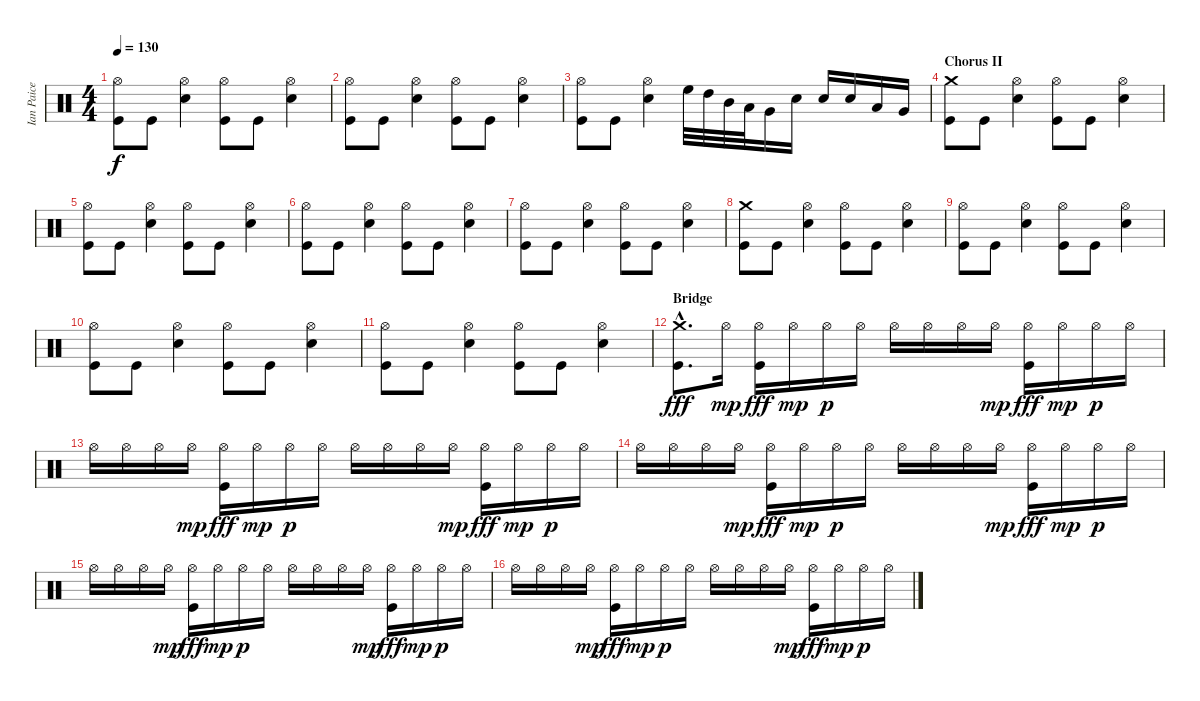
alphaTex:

\track ("Ian Paice - Drums" "Ian Paice ") {instrument percussion}
\staff {score}
\articulation defaults
\ts (4 4)
\tempo 130
\clef neutral
\ks c
("Hi-Hat (open)" "Kick (hit)").8{dy f} "Kick (hit)".8 ("Hi-Hat (open)" "Snare (hit) 2").4 ("Hi-Hat (open)" "Kick (hit)").8 "Kick (hit)".8 ("Hi-Hat (open)" "Snare (hit) 2").4 |
("Hi-Hat (open)" "Kick (hit)").8 "Kick (hit)".8 ("Hi-Hat (open)" "Snare (hit) 2").4 ("Hi-Hat (open)" "Kick (hit)").8 "Kick (hit)".8 ("Hi-Hat (open)" "Snare (hit) 2").4 |
("Hi-Hat (open)" "Kick (hit)").8 "Kick (hit)".8 ("Hi-Hat (open)" "Snare (hit) 2").4 "High Floor Tom (hit)".32 "High Tom (hit)".32 "Mid Tom (hit)".32 "Low Tom (hit)".32 "Very Low Tom (hit)".16 "Snare (hit) 2".16 "Snare (hit) 2".16 "Snare (hit) 2".16 "Low Tom (hit)".16 "Very Low Tom (hit)".16 |
\section ("" "Chorus II")
("Crash medium (hit)" "Kick (hit)").8 "Kick (hit)".8 ("Hi-Hat (open)" "Snare (hit) 2").4 ("Hi-Hat (open)" "Kick (hit)").8 "Kick (hit)".8 ("Hi-Hat (open)" "Snare (hit) 2").4 |
("Hi-Hat (open)" "Kick (hit)").8 "Kick (hit)".8 ("Hi-Hat (open)" "Snare (hit) 2").4 ("Hi-Hat (open)" "Kick (hit)").8 "Kick (hit)".8 ("Hi-Hat (open)" "Snare (hit) 2").4 |
("Hi-Hat (open)" "Kick (hit)").8 "Kick (hit)".8 ("Hi-Hat (open)" "Snare (hit) 2").4 ("Hi-Hat (open)" "Kick (hit)").8 "Kick (hit)".8 ("Hi-Hat (open)" "Snare (hit) 2").4 |
("Hi-Hat (open)" "Kick (hit)").8 "Kick (hit)".8 ("Hi-Hat (open)" "Snare (hit) 2").4 ("Hi-Hat (open)" "Kick (hit)").8 "Kick (hit)".8 ("Hi-Hat (open)" "Snare (hit) 2").4 |
("Crash medium (hit)" "Kick (hit)").8 "Kick (hit)".8 ("Hi-Hat (open)" "Snare (hit) 2").4 ("Hi-Hat (open)" "Kick (hit)").8 "Kick (hit)".8 ("Hi-Hat (open)" "Snare (hit) 2").4 |
("Hi-Hat (open)" "Kick (hit)").8 "Kick (hit)".8 ("Hi-Hat (open)" "Snare (hit) 2").4 ("Hi-Hat (open)" "Kick (hit)").8 "Kick (hit)".8 ("Hi-Hat (open)" "Snare (hit) 2").4 |
("Hi-Hat (open)" "Kick (hit)").8 "Kick (hit)".8 ("Hi-Hat (open)" "Snare (hit) 2").4 ("Hi-Hat (open)" "Kick (hit)").8 "Kick (hit)".8 ("Hi-Hat (open)" "Snare (hit) 2").4 |
("Hi-Hat (open)" "Kick (hit)").8 "Kick (hit)".8 ("Hi-Hat (open)" "Snare (hit) 2").4 ("Hi-Hat (open)" "Kick (hit)").8 "Kick (hit)".8 ("Hi-Hat (open)" "Snare (hit) 2").4 |
\section ("" "Bridge")
("Crash medium (hit)"{hac} "Kick (hit)"{hac}).8{d dy fff} "Hi-Hat (open)".16{dy mp} ("Hi-Hat (open)" "Kick (hit)").16{dy fff} "Hi-Hat (open)".16{dy mp} "Hi-Hat (open)".16{dy p} "Hi-Hat (open)".16 "Hi-Hat (open)".16 "Hi-Hat (open)".16 "Hi-Hat (open)".16 "Hi-Hat (open)".16{dy mp} ("Hi-Hat (open)" "Kick (hit)").16{dy fff} "Hi-Hat (open)".16{dy mp} "Hi-Hat (open)".16{dy p} "Hi-Hat (open)".16 |
"Hi-Hat (open)".16 "Hi-Hat (open)".16 "Hi-Hat (open)".16 "Hi-Hat (open)".16{dy mp} ("Hi-Hat (open)" "Kick (hit)").16{dy fff} "Hi-Hat (open)".16{dy mp} "Hi-Hat (open)".16{dy p} "Hi-Hat (open)".16 "Hi-Hat (open)".16 "Hi-Hat (open)".16 "Hi-Hat (open)".16 "Hi-Hat (open)".16{dy mp} ("Hi-Hat (open)" "Kick (hit)").16{dy fff} "Hi-Hat (open)".16{dy mp} "Hi-Hat (open)".16{dy p} "Hi-Hat (open)".16 |
"Hi-Hat (open)".16 "Hi-Hat (open)".16 "Hi-Hat (open)".16 "Hi-Hat (open)".16{dy mp} ("Hi-Hat (open)" "Kick (hit)").16{dy fff} "Hi-Hat (open)".16{dy mp} "Hi-Hat (open)".16{dy p} "Hi-Hat (open)".16 "Hi-Hat (open)".16 "Hi-Hat (open)".16 "Hi-Hat (open)".16 "Hi-Hat (open)".16{dy mp} ("Hi-Hat (open)" "Kick (hit)").16{dy fff} "Hi-Hat (open)".16{dy mp} "Hi-Hat (open)".16{dy p} "Hi-Hat (open)".16 |
"Hi-Hat (open)".16 "Hi-Hat (open)".16 "Hi-Hat (open)".16 "Hi-Hat (open)".16{dy mp} ("Hi-Hat (open)" "Kick (hit)").16{dy fff} "Hi-Hat (open)".16{dy mp} "Hi-Hat (open)".16{dy p} "Hi-Hat (open)".16 "Hi-Hat (open)".16 "Hi-Hat (open)".16 "Hi-Hat (open)".16 "Hi-Hat (open)".16{dy mp} ("Hi-Hat (open)" "Kick (hit)").16{dy fff} "Hi-Hat (open)".16{dy mp} "Hi-Hat (open)".16{dy p} "Hi-Hat (open)".16 |
"Hi-Hat (open)".16 "Hi-Hat (open)".16 "Hi-Hat (open)".16 "Hi-Hat (open)".16{dy mp} ("Hi-Hat (open)" "Kick (hit)").16{dy fff} "Hi-Hat (open)".16{dy mp} "Hi-Hat (open)".16{dy p} "Hi-Hat (open)".16 "Hi-Hat (open)".16 "Hi-Hat (open)".16 "Hi-Hat (open)".16 "Hi-Hat (open)".16{dy mp} ("Hi-Hat (open)" "Kick (hit)").16{dy fff} "Hi-Hat (open)".16{dy mp} "Hi-Hat (open)".16{dy p} "Hi-Hat (open)".16
